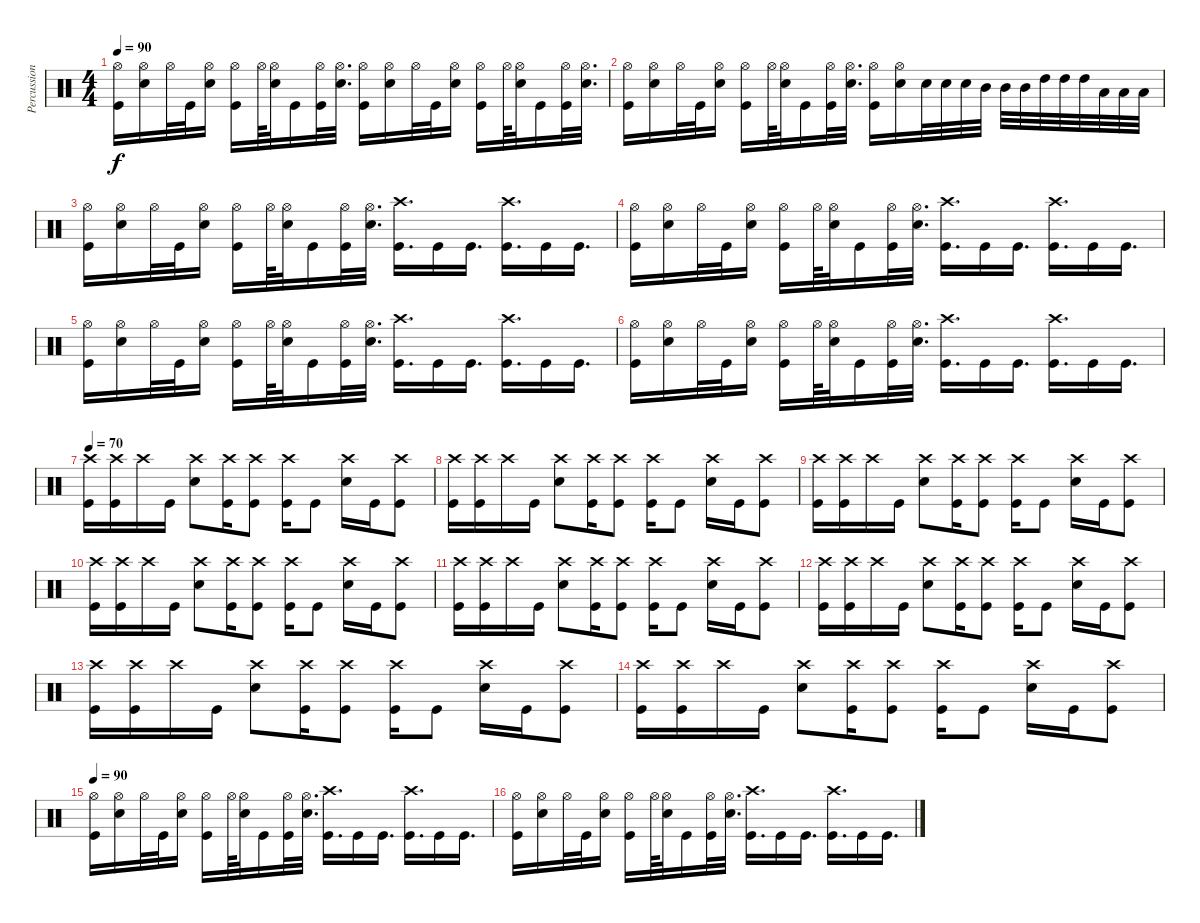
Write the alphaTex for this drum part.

\track ("Percussion" "Percussion") {instrument percussion}
\staff {score}
\articulation defaults
\ts (4 4)
\tempo 90
\clef neutral
\ks c
("Hi-Hat (open)" "Kick (hit)").16{dy f} ("Hi-Hat (open)" "Electric Snare (hit)").16 "Hi-Hat (open)".32 "Kick (hit)".32 ("Hi-Hat (open)" "Electric Snare (hit)").16 ("Hi-Hat (open)" "Kick (hit)").16 "Hi-Hat (open)".64 ("Hi-Hat (open)" "Electric Snare (hit)").32 "Kick (hit)".16 ("Hi-Hat (open)" "Kick (hit)").32 ("Hi-Hat (open)" "Electric Snare (hit)").32{d} ("Hi-Hat (open)" "Kick (hit)").16 ("Hi-Hat (open)" "Electric Snare (hit)").16 "Hi-Hat (open)".32 "Kick (hit)".32 ("Hi-Hat (open)" "Electric Snare (hit)").16 ("Hi-Hat (open)" "Kick (hit)").16 "Hi-Hat (open)".64 ("Hi-Hat (open)" "Electric Snare (hit)").32 "Kick (hit)".16 ("Hi-Hat (open)" "Kick (hit)").32 ("Hi-Hat (open)" "Electric Snare (hit)").32{d} |
("Hi-Hat (open)" "Kick (hit)").16 ("Hi-Hat (open)" "Electric Snare (hit)").16 "Hi-Hat (open)".32 "Kick (hit)".32 ("Hi-Hat (open)" "Electric Snare (hit)").16 ("Hi-Hat (open)" "Kick (hit)").16 "Hi-Hat (open)".64 ("Hi-Hat (open)" "Electric Snare (hit)").32 "Kick (hit)".16 ("Hi-Hat (open)" "Kick (hit)").32 ("Hi-Hat (open)" "Electric Snare (hit)").32{d} ("Hi-Hat (open)" "Kick (hit)").16 ("Hi-Hat (open)" "Electric Snare (hit)").16 "Electric Snare (hit)".32 "Electric Snare (hit)".32 "Electric Snare (hit)".32 "Mid Tom (hit)".32 "Mid Tom (hit)".32 "Mid Tom (hit)".32 "High Tom (hit)".32 "High Tom (hit)".32 "High Tom (hit)".32 "Low Tom (hit)".32 "Low Tom (hit)".32 "Low Tom (hit)".32 |
("Hi-Hat (open)" "Kick (hit)").16 ("Hi-Hat (open)" "Electric Snare (hit)").16 "Hi-Hat (open)".32 "Kick (hit)".32 ("Hi-Hat (open)" "Electric Snare (hit)").16 ("Hi-Hat (open)" "Kick (hit)").16 "Hi-Hat (open)".64 ("Hi-Hat (open)" "Electric Snare (hit)").32 "Kick (hit)".16 ("Hi-Hat (open)" "Kick (hit)").32 ("Hi-Hat (open)" "Electric Snare (hit)").32{d} ("Crash high (hit)" "Kick (hit)").16{d} "Kick (hit)".16 "Kick (hit)".16{d} ("Crash high (hit)" "Kick (hit)").16{d} "Kick (hit)".16 "Kick (hit)".16{d} |
("Hi-Hat (open)" "Kick (hit)").16 ("Hi-Hat (open)" "Electric Snare (hit)").16 "Hi-Hat (open)".32 "Kick (hit)".32 ("Hi-Hat (open)" "Electric Snare (hit)").16 ("Hi-Hat (open)" "Kick (hit)").16 "Hi-Hat (open)".64 ("Hi-Hat (open)" "Electric Snare (hit)").32 "Kick (hit)".16 ("Hi-Hat (open)" "Kick (hit)").32 ("Hi-Hat (open)" "Electric Snare (hit)").32{d} ("Crash high (hit)" "Kick (hit)").16{d} "Kick (hit)".16 "Kick (hit)".16{d} ("Crash high (hit)" "Kick (hit)").16{d} "Kick (hit)".16 "Kick (hit)".16{d} |
("Hi-Hat (open)" "Kick (hit)").16 ("Hi-Hat (open)" "Electric Snare (hit)").16 "Hi-Hat (open)".32 "Kick (hit)".32 ("Hi-Hat (open)" "Electric Snare (hit)").16 ("Hi-Hat (open)" "Kick (hit)").16 "Hi-Hat (open)".64 ("Hi-Hat (open)" "Electric Snare (hit)").32 "Kick (hit)".16 ("Hi-Hat (open)" "Kick (hit)").32 ("Hi-Hat (open)" "Electric Snare (hit)").32{d} ("Crash high (hit)" "Kick (hit)").16{d} "Kick (hit)".16 "Kick (hit)".16{d} ("Crash high (hit)" "Kick (hit)").16{d} "Kick (hit)".16 "Kick (hit)".16{d} |
("Hi-Hat (open)" "Kick (hit)").16 ("Hi-Hat (open)" "Electric Snare (hit)").16 "Hi-Hat (open)".32 "Kick (hit)".32 ("Hi-Hat (open)" "Electric Snare (hit)").16 ("Hi-Hat (open)" "Kick (hit)").16 "Hi-Hat (open)".64 ("Hi-Hat (open)" "Electric Snare (hit)").32 "Kick (hit)".16 ("Hi-Hat (open)" "Kick (hit)").32 ("Hi-Hat (open)" "Electric Snare (hit)").32{d} ("Crash high (hit)" "Kick (hit)").16{d} "Kick (hit)".16 "Kick (hit)".16{d} ("Crash high (hit)" "Kick (hit)").16{d} "Kick (hit)".16 "Kick (hit)".16{d} |
\tempo 70
("Crash high (hit)" "Kick (hit)").16 ("Crash high (hit)" "Kick (hit)").16 "Crash high (hit)".16 "Kick (hit)".16 ("Crash high (hit)" "Electric Snare (hit)").8 ("Crash high (hit)" "Kick (hit)").16 ("Crash high (hit)" "Kick (hit)").8 ("Crash high (hit)" "Kick (hit)").16 "Kick (hit)".8 ("Crash high (hit)" "Electric Snare (hit)").16 "Kick (hit)".16 ("Crash high (hit)" "Kick (hit)").8 |
("Crash high (hit)" "Kick (hit)").16 ("Crash high (hit)" "Kick (hit)").16 "Crash high (hit)".16 "Kick (hit)".16 ("Crash high (hit)" "Electric Snare (hit)").8 ("Crash high (hit)" "Kick (hit)").16 ("Crash high (hit)" "Kick (hit)").8 ("Crash high (hit)" "Kick (hit)").16 "Kick (hit)".8 ("Crash high (hit)" "Electric Snare (hit)").16 "Kick (hit)".16 ("Crash high (hit)" "Kick (hit)").8 |
("Crash high (hit)" "Kick (hit)").16 ("Crash high (hit)" "Kick (hit)").16 "Crash high (hit)".16 "Kick (hit)".16 ("Crash high (hit)" "Electric Snare (hit)").8 ("Crash high (hit)" "Kick (hit)").16 ("Crash high (hit)" "Kick (hit)").8 ("Crash high (hit)" "Kick (hit)").16 "Kick (hit)".8 ("Crash high (hit)" "Electric Snare (hit)").16 "Kick (hit)".16 ("Crash high (hit)" "Kick (hit)").8 |
("Crash high (hit)" "Kick (hit)").16 ("Crash high (hit)" "Kick (hit)").16 "Crash high (hit)".16 "Kick (hit)".16 ("Crash high (hit)" "Electric Snare (hit)").8 ("Crash high (hit)" "Kick (hit)").16 ("Crash high (hit)" "Kick (hit)").8 ("Crash high (hit)" "Kick (hit)").16 "Kick (hit)".8 ("Crash high (hit)" "Electric Snare (hit)").16 "Kick (hit)".16 ("Crash high (hit)" "Kick (hit)").8 |
("Crash high (hit)" "Kick (hit)").16 ("Crash high (hit)" "Kick (hit)").16 "Crash high (hit)".16 "Kick (hit)".16 ("Crash high (hit)" "Electric Snare (hit)").8 ("Crash high (hit)" "Kick (hit)").16 ("Crash high (hit)" "Kick (hit)").8 ("Crash high (hit)" "Kick (hit)").16 "Kick (hit)".8 ("Crash high (hit)" "Electric Snare (hit)").16 "Kick (hit)".16 ("Crash high (hit)" "Kick (hit)").8 |
("Crash high (hit)" "Kick (hit)").16 ("Crash high (hit)" "Kick (hit)").16 "Crash high (hit)".16 "Kick (hit)".16 ("Crash high (hit)" "Electric Snare (hit)").8 ("Crash high (hit)" "Kick (hit)").16 ("Crash high (hit)" "Kick (hit)").8 ("Crash high (hit)" "Kick (hit)").16 "Kick (hit)".8 ("Crash high (hit)" "Electric Snare (hit)").16 "Kick (hit)".16 ("Crash high (hit)" "Kick (hit)").8 |
("Crash high (hit)" "Kick (hit)").16 ("Crash high (hit)" "Kick (hit)").16 "Crash high (hit)".16 "Kick (hit)".16 ("Crash high (hit)" "Electric Snare (hit)").8 ("Crash high (hit)" "Kick (hit)").16 ("Crash high (hit)" "Kick (hit)").8 ("Crash high (hit)" "Kick (hit)").16 "Kick (hit)".8 ("Crash high (hit)" "Electric Snare (hit)").16 "Kick (hit)".16 ("Crash high (hit)" "Kick (hit)").8 |
("Crash high (hit)" "Kick (hit)").16 ("Crash high (hit)" "Kick (hit)").16 "Crash high (hit)".16 "Kick (hit)".16 ("Crash high (hit)" "Electric Snare (hit)").8 ("Crash high (hit)" "Kick (hit)").16 ("Crash high (hit)" "Kick (hit)").8 ("Crash high (hit)" "Kick (hit)").16 "Kick (hit)".8 ("Crash high (hit)" "Electric Snare (hit)").16 "Kick (hit)".16 ("Crash high (hit)" "Kick (hit)").8 |
\tempo 90
("Hi-Hat (open)" "Kick (hit)").16 ("Hi-Hat (open)" "Electric Snare (hit)").16 "Hi-Hat (open)".32 "Kick (hit)".32 ("Hi-Hat (open)" "Electric Snare (hit)").16 ("Hi-Hat (open)" "Kick (hit)").16 "Hi-Hat (open)".64 ("Hi-Hat (open)" "Electric Snare (hit)").32 "Kick (hit)".16 ("Hi-Hat (open)" "Kick (hit)").32 ("Hi-Hat (open)" "Electric Snare (hit)").32{d} ("Crash high (hit)" "Kick (hit)").16{d} "Kick (hit)".16 "Kick (hit)".16{d} ("Crash high (hit)" "Kick (hit)").16{d} "Kick (hit)".16 "Kick (hit)".16{d} |
("Hi-Hat (open)" "Kick (hit)").16 ("Hi-Hat (open)" "Electric Snare (hit)").16 "Hi-Hat (open)".32 "Kick (hit)".32 ("Hi-Hat (open)" "Electric Snare (hit)").16 ("Hi-Hat (open)" "Kick (hit)").16 "Hi-Hat (open)".64 ("Hi-Hat (open)" "Electric Snare (hit)").32 "Kick (hit)".16 ("Hi-Hat (open)" "Kick (hit)").32 ("Hi-Hat (open)" "Electric Snare (hit)").32{d} ("Crash high (hit)" "Kick (hit)").16{d} "Kick (hit)".16 "Kick (hit)".16{d} ("Crash high (hit)" "Kick (hit)").16{d} "Kick (hit)".16 "Kick (hit)".16{d}
